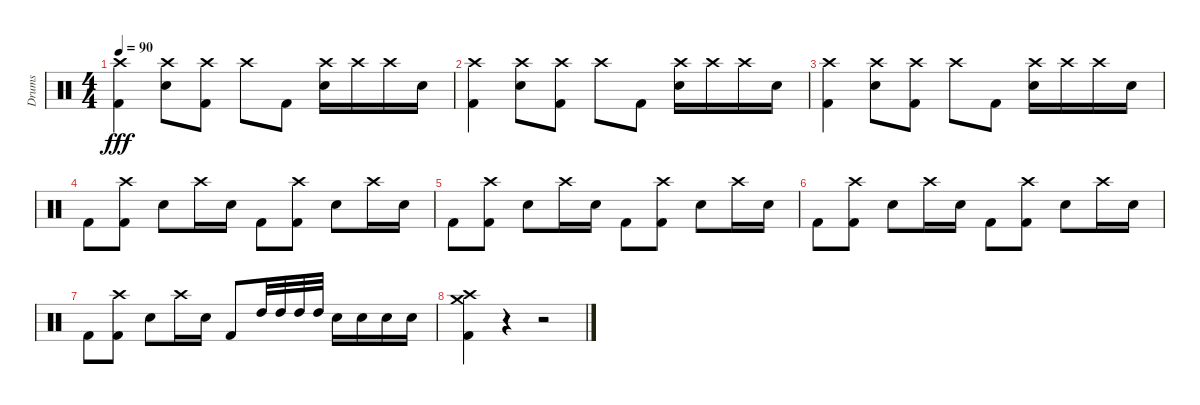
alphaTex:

\track ("Drums" "Drums") {instrument percussion}
\staff {score}
\articulation defaults
\ts (4 4)
\tempo 90
\clef neutral
\ks c
("Crash high (hit)" "Kick (hit) 2").4{dy fff} ("Crash high (hit)" "Electric Snare (hit)").8 ("Crash high (hit)" "Kick (hit) 2").8 "Crash high (hit)".8 "Kick (hit) 2".8 ("Crash high (hit)" "Electric Snare (hit)").16 "Crash high (hit)".16 "Crash high (hit)".16 "Electric Snare (hit)".16 |
("Crash high (hit)" "Kick (hit) 2").4 ("Crash high (hit)" "Electric Snare (hit)").8 ("Crash high (hit)" "Kick (hit) 2").8 "Crash high (hit)".8 "Kick (hit) 2".8 ("Crash high (hit)" "Electric Snare (hit)").16 "Crash high (hit)".16 "Crash high (hit)".16 "Electric Snare (hit)".16 |
("Crash high (hit)" "Kick (hit) 2").4 ("Crash high (hit)" "Electric Snare (hit)").8 ("Crash high (hit)" "Kick (hit) 2").8 "Crash high (hit)".8 "Kick (hit) 2".8 ("Crash high (hit)" "Electric Snare (hit)").16 "Crash high (hit)".16 "Crash high (hit)".16 "Electric Snare (hit)".16 |
"Kick (hit) 2".8 ("Crash high (hit)" "Kick (hit) 2").8 "Electric Snare (hit)".8 "Crash high (hit)".16 "Electric Snare (hit)".16 "Kick (hit) 2".8 ("Crash high (hit)" "Kick (hit) 2").8 "Electric Snare (hit)".8 "Crash high (hit)".16 "Electric Snare (hit)".16 |
"Kick (hit) 2".8 ("Crash high (hit)" "Kick (hit) 2").8 "Electric Snare (hit)".8 "Crash high (hit)".16 "Electric Snare (hit)".16 "Kick (hit) 2".8 ("Crash high (hit)" "Kick (hit) 2").8 "Electric Snare (hit)".8 "Crash high (hit)".16 "Electric Snare (hit)".16 |
"Kick (hit) 2".8 ("Crash high (hit)" "Kick (hit) 2").8 "Electric Snare (hit)".8 "Crash high (hit)".16 "Electric Snare (hit)".16 "Kick (hit) 2".8 ("Crash high (hit)" "Kick (hit) 2").8 "Electric Snare (hit)".8 "Crash high (hit)".16 "Electric Snare (hit)".16 |
"Kick (hit) 2".8 ("Crash high (hit)" "Kick (hit) 2").8 "Electric Snare (hit)".8 "Crash high (hit)".16 "Electric Snare (hit)".16 "Kick (hit) 2".8 "High Tom (hit)".32 "High Tom (hit)".32 "High Tom (hit)".32 "High Tom (hit)".32 "Electric Snare (hit)".16 "Electric Snare (hit)".16 "Electric Snare (hit)".16 "Electric Snare (hit)".16 |
("Crash high (hit)" "Crash medium (hit)" "Kick (hit) 2").4 r.4 r.2
